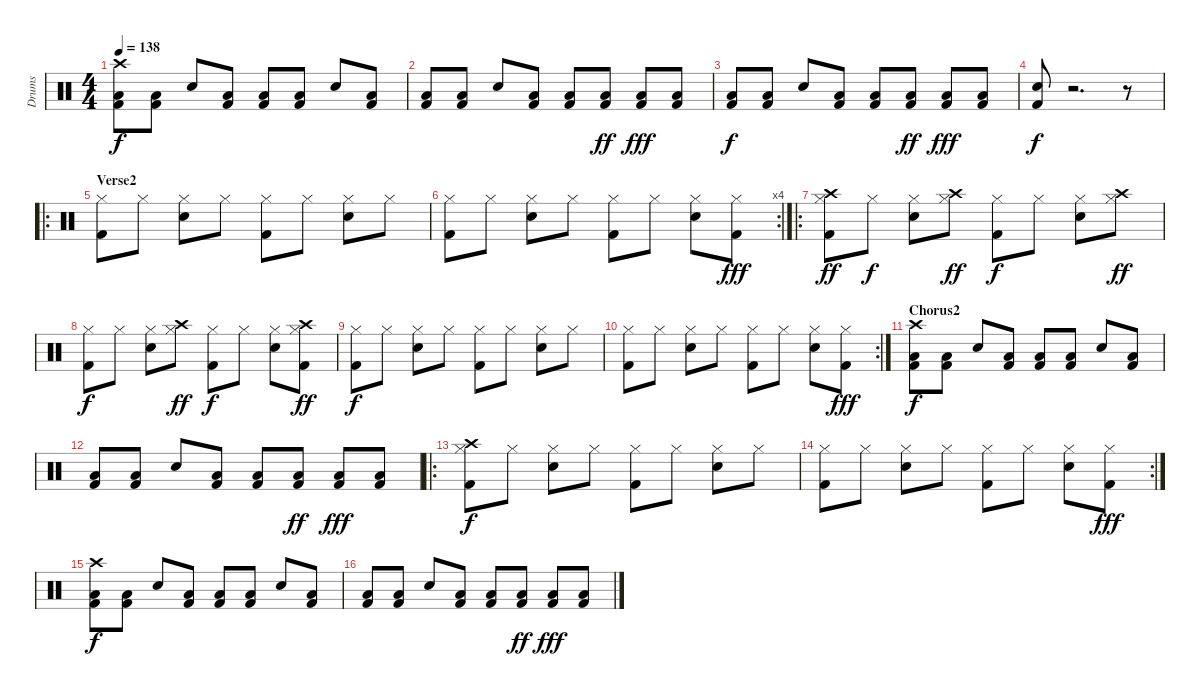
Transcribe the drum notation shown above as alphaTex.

\track ("Drums" "Drums") {instrument percussion}
\staff {score}
\articulation defaults
\ts (4 4)
\tempo 138
\clef neutral
\ks c
("Crash high (hit)" "Low Floor Tom (hit)" "Kick (hit) 2").8{dy f} ("Low Floor Tom (hit)" "Kick (hit) 2").8 "Electric Snare (hit)".8 ("Low Floor Tom (hit)" "Kick (hit) 2").8 ("Low Floor Tom (hit)" "Kick (hit) 2").8 ("Low Floor Tom (hit)" "Kick (hit) 2").8 "Electric Snare (hit)".8 ("Low Floor Tom (hit)" "Kick (hit) 2").8 |
("Low Floor Tom (hit)" "Kick (hit) 2").8 ("Low Floor Tom (hit)" "Kick (hit) 2").8 "Electric Snare (hit)".8 ("Low Floor Tom (hit)" "Kick (hit) 2").8 ("Low Floor Tom (hit)" "Kick (hit) 2").8 ("Low Floor Tom (hit)" "Kick (hit) 2").8{dy ff} ("Low Floor Tom (hit)" "Kick (hit) 2").8{dy fff} ("Low Floor Tom (hit)" "Kick (hit) 2").8 |
("Low Floor Tom (hit)" "Kick (hit) 2").8{dy f} ("Low Floor Tom (hit)" "Kick (hit) 2").8 "Electric Snare (hit)".8 ("Low Floor Tom (hit)" "Kick (hit) 2").8 ("Low Floor Tom (hit)" "Kick (hit) 2").8 ("Low Floor Tom (hit)" "Kick (hit) 2").8{dy ff} ("Low Floor Tom (hit)" "Kick (hit) 2").8{dy fff} ("Low Floor Tom (hit)" "Kick (hit) 2").8 |
("Electric Snare (hit)" "Kick (hit) 2").8{dy f} r.2{d} r.8 |
\ro
\section ("" "Verse2")
("Hi-Hat (closed)" "Kick (hit) 2").8 "Hi-Hat (closed)".8 ("Hi-Hat (closed)" "Electric Snare (hit)").8 "Hi-Hat (closed)".8 ("Hi-Hat (closed)" "Kick (hit) 2").8 "Hi-Hat (closed)".8 ("Hi-Hat (closed)" "Electric Snare (hit)").8 "Hi-Hat (closed)".8 |
\rc 4
("Hi-Hat (closed)" "Kick (hit) 2").8 "Hi-Hat (closed)".8 ("Hi-Hat (closed)" "Electric Snare (hit)").8 "Hi-Hat (closed)".8 ("Hi-Hat (closed)" "Kick (hit) 2").8 "Hi-Hat (closed)".8 ("Hi-Hat (closed)" "Electric Snare (hit)").8 ("Hi-Hat (closed)" "Kick (hit) 2").8{dy fff} |
\ro
("Crash high (hit)" "Hi-Hat (closed)" "Kick (hit) 2").8{dy ff} "Hi-Hat (closed)".8{dy f} ("Hi-Hat (closed)" "Electric Snare (hit)").8 ("Crash high (hit)" "Hi-Hat (closed)").8{dy ff} ("Hi-Hat (closed)" "Kick (hit) 2").8{dy f} "Hi-Hat (closed)".8 ("Hi-Hat (closed)" "Electric Snare (hit)").8 ("Crash high (hit)" "Hi-Hat (closed)").8{dy ff} |
("Hi-Hat (closed)" "Kick (hit) 2").8{dy f} "Hi-Hat (closed)".8 ("Hi-Hat (closed)" "Electric Snare (hit)").8 ("Crash high (hit)" "Hi-Hat (closed)").8{dy ff} ("Hi-Hat (closed)" "Kick (hit) 2").8{dy f} "Hi-Hat (closed)".8 ("Hi-Hat (closed)" "Electric Snare (hit)").8 ("Crash high (hit)" "Hi-Hat (closed)" "Kick (hit) 2").8{dy ff} |
("Hi-Hat (closed)" "Kick (hit) 2").8{dy f} "Hi-Hat (closed)".8 ("Hi-Hat (closed)" "Electric Snare (hit)").8 "Hi-Hat (closed)".8 ("Hi-Hat (closed)" "Kick (hit) 2").8 "Hi-Hat (closed)".8 ("Hi-Hat (closed)" "Electric Snare (hit)").8 "Hi-Hat (closed)".8 |
\rc 2
("Hi-Hat (closed)" "Kick (hit) 2").8 "Hi-Hat (closed)".8 ("Hi-Hat (closed)" "Electric Snare (hit)").8 "Hi-Hat (closed)".8 ("Hi-Hat (closed)" "Kick (hit) 2").8 "Hi-Hat (closed)".8 ("Hi-Hat (closed)" "Electric Snare (hit)").8 ("Hi-Hat (closed)" "Kick (hit) 2").8{dy fff} |
\section ("" "Chorus2")
("Crash high (hit)" "Low Floor Tom (hit)" "Kick (hit) 2").8{dy f} ("Low Floor Tom (hit)" "Kick (hit) 2").8 "Electric Snare (hit)".8 ("Low Floor Tom (hit)" "Kick (hit) 2").8 ("Low Floor Tom (hit)" "Kick (hit) 2").8 ("Low Floor Tom (hit)" "Kick (hit) 2").8 "Electric Snare (hit)".8 ("Low Floor Tom (hit)" "Kick (hit) 2").8 |
("Low Floor Tom (hit)" "Kick (hit) 2").8 ("Low Floor Tom (hit)" "Kick (hit) 2").8 "Electric Snare (hit)".8 ("Low Floor Tom (hit)" "Kick (hit) 2").8 ("Low Floor Tom (hit)" "Kick (hit) 2").8 ("Low Floor Tom (hit)" "Kick (hit) 2").8{dy ff} ("Low Floor Tom (hit)" "Kick (hit) 2").8{dy fff} ("Low Floor Tom (hit)" "Kick (hit) 2").8 |
\ro
("Crash high (hit)" "Hi-Hat (closed)" "Kick (hit) 2").8{dy f} "Hi-Hat (closed)".8 ("Hi-Hat (closed)" "Electric Snare (hit)").8 "Hi-Hat (closed)".8 ("Hi-Hat (closed)" "Kick (hit) 2").8 "Hi-Hat (closed)".8 ("Hi-Hat (closed)" "Electric Snare (hit)").8 "Hi-Hat (closed)".8 |
\rc 2
("Hi-Hat (closed)" "Kick (hit) 2").8 "Hi-Hat (closed)".8 ("Hi-Hat (closed)" "Electric Snare (hit)").8 "Hi-Hat (closed)".8 ("Hi-Hat (closed)" "Kick (hit) 2").8 "Hi-Hat (closed)".8 ("Hi-Hat (closed)" "Electric Snare (hit)").8 ("Hi-Hat (closed)" "Kick (hit) 2").8{dy fff} |
("Crash high (hit)" "Low Floor Tom (hit)" "Kick (hit) 2").8{dy f} ("Low Floor Tom (hit)" "Kick (hit) 2").8 "Electric Snare (hit)".8 ("Low Floor Tom (hit)" "Kick (hit) 2").8 ("Low Floor Tom (hit)" "Kick (hit) 2").8 ("Low Floor Tom (hit)" "Kick (hit) 2").8 "Electric Snare (hit)".8 ("Low Floor Tom (hit)" "Kick (hit) 2").8 |
("Low Floor Tom (hit)" "Kick (hit) 2").8 ("Low Floor Tom (hit)" "Kick (hit) 2").8 "Electric Snare (hit)".8 ("Low Floor Tom (hit)" "Kick (hit) 2").8 ("Low Floor Tom (hit)" "Kick (hit) 2").8 ("Low Floor Tom (hit)" "Kick (hit) 2").8{dy ff} ("Low Floor Tom (hit)" "Kick (hit) 2").8{dy fff} ("Low Floor Tom (hit)" "Kick (hit) 2").8
